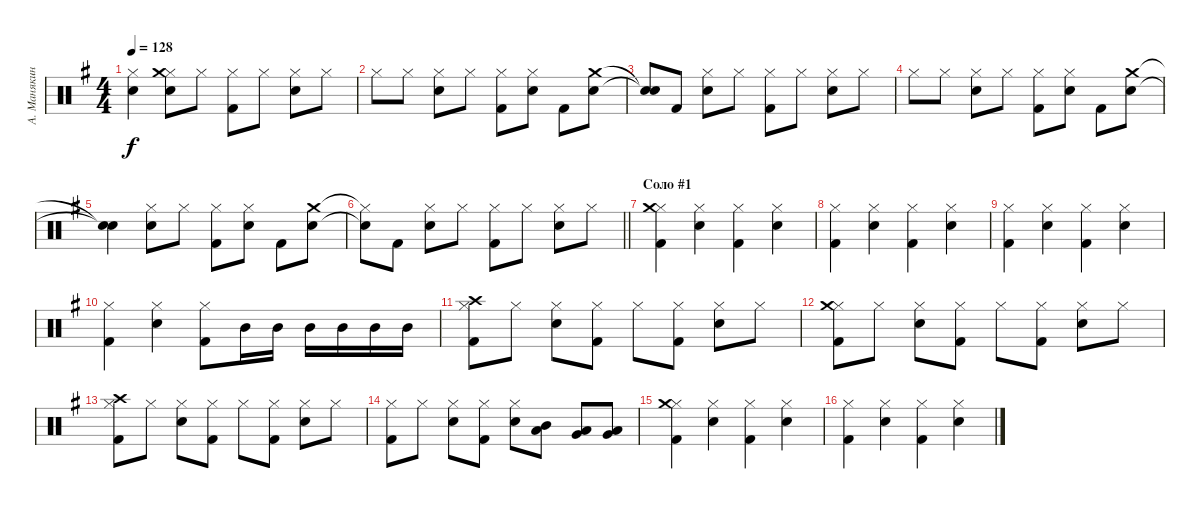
\track ("А. Манякин" "А. Манякин") {instrument percussion}
\staff {score}
\articulation defaults
\ts (4 4)
\tempo 128
\clef neutral
\ks g
("Snare (hit)"{t} "Hi-Hat (closed)"{t}).4{dy f} ("Electric Snare (hit)" "Hi-Hat (closed)" "Crash medium (hit)").8 "Hi-Hat (closed)".8 ("Kick (hit) 2" "Hi-Hat (closed)").8 "Hi-Hat (closed)".8 ("Electric Snare (hit)" "Hi-Hat (closed)").8 "Hi-Hat (closed)".8 |
"Hi-Hat (closed)".8 "Hi-Hat (closed)".8 ("Electric Snare (hit)" "Hi-Hat (closed)").8 "Hi-Hat (closed)".8 ("Kick (hit) 2" "Hi-Hat (closed)").8 ("Electric Snare (hit)" "Hi-Hat (closed)").8 "Kick (hit) 2".8 ("Electric Snare (hit)" "Crash medium (hit)").8 |
("Snare (hit)"{t} "Snare (hit)"{t}).8 "Kick (hit) 2".8 ("Electric Snare (hit)" "Hi-Hat (closed)").8 "Hi-Hat (closed)".8 ("Kick (hit) 2" "Hi-Hat (closed)").8 "Hi-Hat (closed)".8 ("Electric Snare (hit)" "Hi-Hat (closed)").8 "Hi-Hat (closed)".8 |
"Hi-Hat (closed)".8 "Hi-Hat (closed)".8 ("Electric Snare (hit)" "Hi-Hat (closed)").8 "Hi-Hat (closed)".8 ("Kick (hit) 2" "Hi-Hat (closed)").8 ("Electric Snare (hit)" "Hi-Hat (closed)").8 "Kick (hit) 2".8 ("Electric Snare (hit)" "Crash medium (hit)").8 |
("Snare (hit)"{t} "Snare (hit)"{t}).4 ("Electric Snare (hit)" "Hi-Hat (closed)").8 "Hi-Hat (closed)".8 ("Kick (hit) 2" "Hi-Hat (closed)").8 ("Electric Snare (hit)" "Hi-Hat (closed)").8 "Kick (hit) 2".8 ("Electric Snare (hit)" "Crash medium (hit)").8 |
\barLineRight lightlight
("Snare (hit)"{t} "Hi-Hat (closed)"{t}).8 "Kick (hit) 2".8 ("Electric Snare (hit)" "Hi-Hat (closed)").8 "Hi-Hat (closed)".8 ("Kick (hit) 2" "Hi-Hat (closed)").8 "Hi-Hat (closed)".8 ("Electric Snare (hit)" "Hi-Hat (closed)").8 "Hi-Hat (closed)".8 |
\section ("" "Соло #1")
("Kick (hit) 2" "Hi-Hat (closed)" "Crash medium (hit)").4 ("Electric Snare (hit)" "Hi-Hat (closed)").4 ("Kick (hit) 2" "Hi-Hat (closed)").4 ("Electric Snare (hit)" "Hi-Hat (closed)").4 |
("Kick (hit) 2" "Hi-Hat (closed)").4 ("Electric Snare (hit)" "Hi-Hat (closed)").4 ("Kick (hit) 2" "Hi-Hat (closed)").4 ("Electric Snare (hit)" "Hi-Hat (closed)").4 |
("Kick (hit) 2" "Hi-Hat (closed)").4 ("Electric Snare (hit)" "Hi-Hat (closed)").4 ("Kick (hit) 2" "Hi-Hat (closed)").4 ("Electric Snare (hit)" "Hi-Hat (closed)").4 |
("Kick (hit) 2" "Hi-Hat (closed)").4 ("Electric Snare (hit)" "Hi-Hat (closed)").4 ("Kick (hit) 2" "Hi-Hat (closed)").8 "Mid Tom (hit)".16 "Mid Tom (hit)".16 "Mid Tom (hit)".16 "Mid Tom (hit)".16 "Mid Tom (hit)".16 "Mid Tom (hit)".16 |
("Kick (hit) 2" "Hi-Hat (closed)" "Crash high (hit)").8 "Hi-Hat (closed)".8 ("Electric Snare (hit)" "Hi-Hat (closed)").8 ("Kick (hit) 2" "Hi-Hat (closed)").8 "Hi-Hat (closed)".8 ("Kick (hit) 2" "Hi-Hat (closed)").8 ("Electric Snare (hit)" "Hi-Hat (closed)").8 "Hi-Hat (closed)".8 |
("Kick (hit) 2" "Hi-Hat (closed)" "Crash medium (hit)").8 "Hi-Hat (closed)".8 ("Electric Snare (hit)" "Hi-Hat (closed)").8 ("Kick (hit) 2" "Hi-Hat (closed)").8 "Hi-Hat (closed)".8 ("Kick (hit) 2" "Hi-Hat (closed)").8 ("Electric Snare (hit)" "Hi-Hat (closed)").8 "Hi-Hat (closed)".8 |
("Kick (hit) 2" "Hi-Hat (closed)" "Crash high (hit)").8 "Hi-Hat (closed)".8 ("Electric Snare (hit)" "Hi-Hat (closed)").8 ("Kick (hit) 2" "Hi-Hat (closed)").8 "Hi-Hat (closed)".8 ("Kick (hit) 2" "Hi-Hat (closed)").8 ("Electric Snare (hit)" "Hi-Hat (closed)").8 "Hi-Hat (closed)".8 |
("Kick (hit) 2" "Hi-Hat (closed)").8 "Hi-Hat (closed)".8 ("Electric Snare (hit)" "Hi-Hat (closed)").8 ("Kick (hit) 2" "Hi-Hat (closed)").8 ("Electric Snare (hit)" "Hi-Hat (closed)").8 ("Mid Tom (hit)" "Low Tom (hit)").8 ("Low Tom (hit)" "Very Low Tom (hit)").8 ("Very Low Tom (hit)" "Low Floor Tom (hit)").8 |
("Kick (hit) 2" "Hi-Hat (closed)" "Crash medium (hit)").4 ("Electric Snare (hit)" "Hi-Hat (closed)").4 ("Kick (hit) 2" "Hi-Hat (closed)").4 ("Electric Snare (hit)" "Hi-Hat (closed)").4 |
("Kick (hit) 2" "Hi-Hat (closed)").4 ("Electric Snare (hit)" "Hi-Hat (closed)").4 ("Kick (hit) 2" "Hi-Hat (closed)").4 ("Electric Snare (hit)" "Hi-Hat (closed)").4
